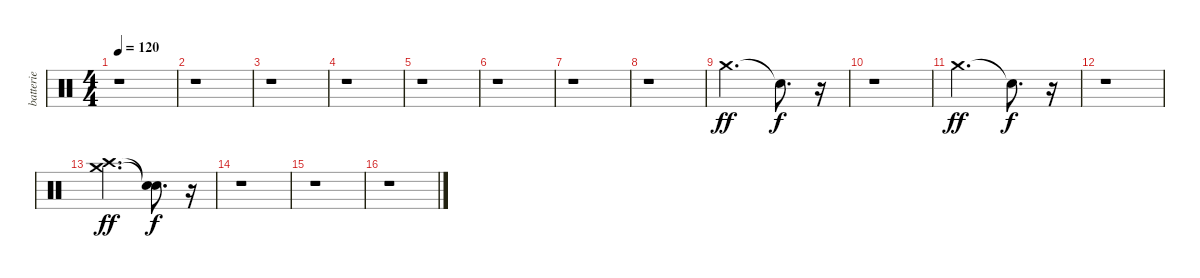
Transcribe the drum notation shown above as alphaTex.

\track ("batterie" "batterie") {instrument percussion}
\staff {score}
\articulation defaults
\ts (4 4)
\tempo 120
\clef neutral
\ks c
r.1{dy f} |
r.1 |
r.1 |
r.1 |
r.1 |
r.1 |
r.1 |
r.1 |
"Crash medium (hit)".2{d dy ff} "Snare (hit)"{t}.8{d dy f} r.16 |
r.1 |
"Crash medium (hit)".2{d dy ff} "Snare (hit)"{t}.8{d dy f} r.16 |
r.1 |
("Crash high (hit)" "Crash medium (hit)").2{d dy ff} ("Snare (hit)"{t} "Snare (hit)"{t}).8{d dy f} r.16 |
r.1 |
r.1 |
r.1
